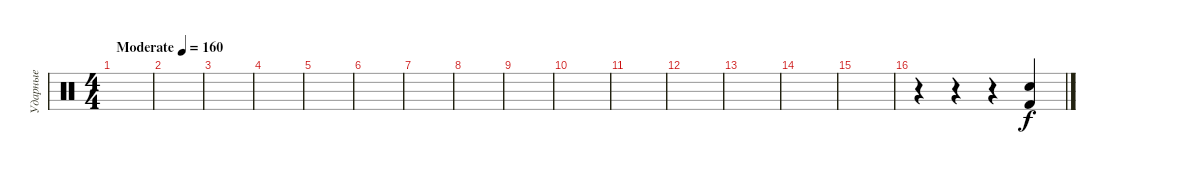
\track ("Ударные" "Ударные") {instrument percussion}
\staff {score}
\articulation defaults
\ts (4 4)
\tempo (160 "Moderate")
\clef neutral
\ks c
|
|
|
|
|
|
|
|
|
|
|
|
|
|
|
r.4 r.4 r.4 ("Electric Snare (hit)" "Kick (hit) 2").4
